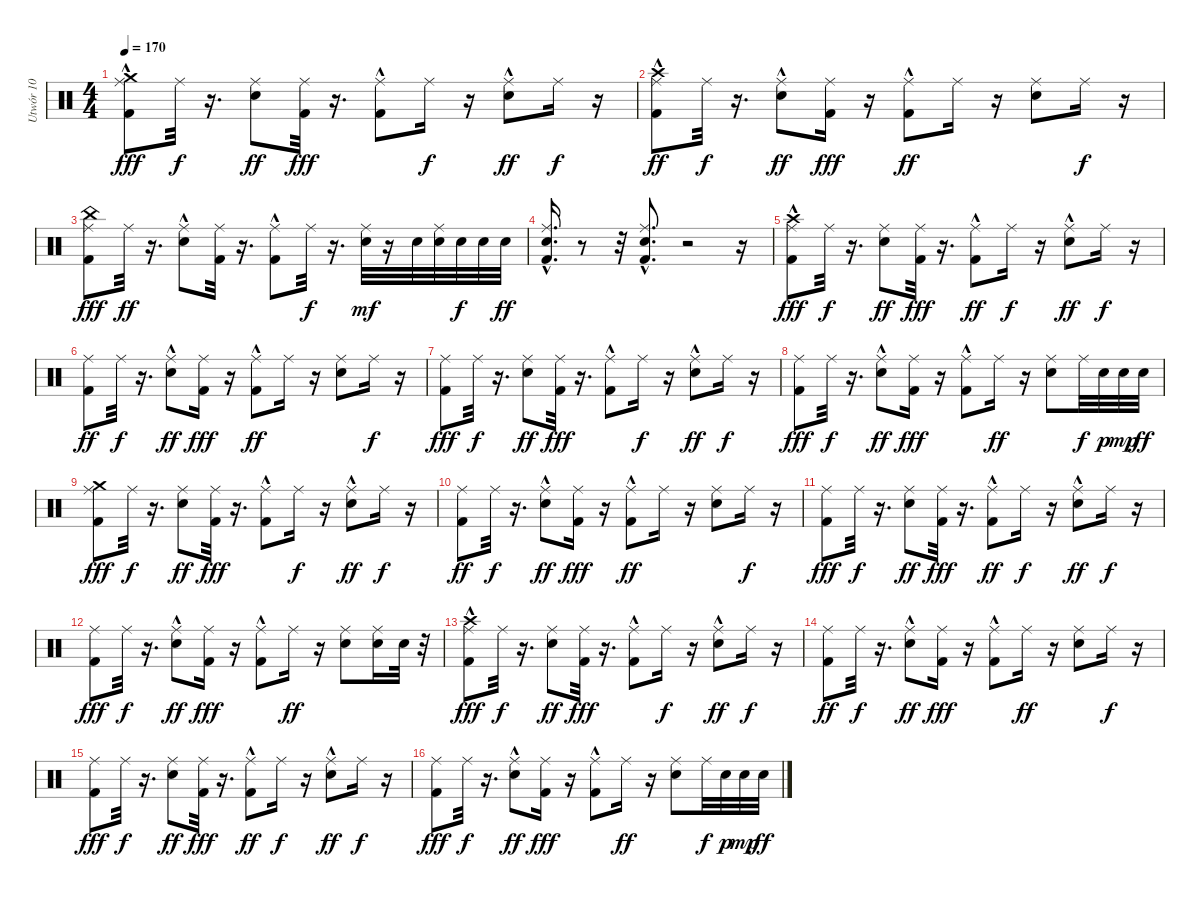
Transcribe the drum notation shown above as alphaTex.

\track ("Utwór 10" "Utwór 10") {instrument percussion}
\staff {score}
\articulation defaults
\ts (4 4)
\tempo 170
\clef neutral
\ks c
("Kick (hit) 2" "Crash medium (hit)"{hac} "Ride (middle)").8{dy fff} "Ride (middle)".32{dy f} r.16{d} ("Snare (hit) 2" "Ride (middle)").8{dy ff} ("Kick (hit) 2" "Ride (middle)").32{dy fff} r.16{d} ("Ride (middle)" "Kick (hit) 2"{hac}).8 "Ride (middle)".16{dy f} r.16 ("Snare (hit) 2"{hac} "Ride (middle)").8{dy ff} "Ride (middle)".16{dy f} r.16 |
("Kick (hit) 2" "Crash high (hit)"{hac} "Ride (middle)").8{dy ff} "Ride (middle)".32{dy f} r.16{d} ("Snare (hit) 2"{hac} "Ride (middle)").8{dy ff} ("Kick (hit) 2" "Ride (middle)").16{dy fff} r.16 ("Kick (hit) 2"{hac} "Ride (middle)").8{dy ff} "Ride (middle)".16 r.16 ("Snare (hit) 2" "Ride (middle)").8 "Ride (middle)".16{dy f} r.16 |
("Ride (middle)" "Kick (hit) 2" "China (hit)").8{dy fff} "Ride (middle)".32{dy ff} r.16{d} ("Snare (hit) 2"{hac} "Ride (middle)").8 ("Kick (hit) 2" "Ride (middle)").32 r.16{d} ("Kick (hit) 2"{hac} "Ride (middle)").8 "Ride (middle)".32{dy f} r.16{d} ("Ride (middle)" "Snare (hit) 2").32{dy mf} r.16 "Snare (hit) 2".32 ("Snare (hit) 2" "Ride (middle)").32 "Snare (hit) 2".32{dy f} "Snare (hit) 2".32 "Snare (hit) 2".32{dy ff} |
("Kick (hit) 2"{hac} "Snare (hit) 2" "Ride (middle)").16{d} r.8 r.32 ("Kick (hit) 2"{hac} "Snare (hit) 2" "Ride (middle)").8{d} r.2 r.16 |
("Kick (hit) 2" "Ride (middle)" "Crash high (hit)"{hac}).8{dy fff} "Ride (middle)".32{dy f} r.16{d} ("Snare (hit) 2" "Ride (middle)").8{dy ff} ("Kick (hit) 2" "Ride (middle)").32{dy fff} r.16{d} ("Kick (hit) 2"{hac} "Ride (middle)").8{dy ff} "Ride (middle)".16{dy f} r.16 ("Ride (middle)" "Snare (hit) 2"{hac}).8{dy ff} "Ride (middle)".16{dy f} r.16 |
("Kick (hit) 2" "Ride (middle)").8{dy ff} "Ride (middle)".32{dy f} r.16{d} ("Snare (hit) 2"{hac} "Ride (middle)").8{dy ff} ("Kick (hit) 2" "Ride (middle)").16{dy fff} r.16 ("Kick (hit) 2"{hac} "Ride (middle)").8{dy ff} "Ride (middle)".16 r.16 ("Ride (middle)" "Snare (hit) 2").8 "Ride (middle)".16{dy f} r.16 |
("Kick (hit) 2" "Ride (middle)").8{dy fff} "Ride (middle)".32{dy f} r.16{d} ("Ride (middle)" "Snare (hit) 2").8{dy ff} ("Ride (middle)" "Kick (hit) 2").32{dy fff} r.16{d} ("Ride (middle)" "Kick (hit) 2"{hac}).8 "Ride (middle)".16{dy f} r.16 ("Ride (middle)" "Snare (hit) 2"{hac}).8{dy ff} "Ride (middle)".16{dy f} r.16 |
("Ride (middle)" "Kick (hit) 2").8{dy fff} "Ride (middle)".32{dy f} r.16{d} ("Ride (middle)" "Snare (hit) 2"{hac}).8{dy ff} ("Ride (middle)" "Kick (hit) 2").16{dy fff} r.16 ("Ride (middle)" "Kick (hit) 2"{hac}).8 "Ride (middle)".16{dy ff} r.16 ("Ride (middle)" "Snare (hit) 2").8 "Ride (middle)".32{dy f} "Snare (hit) 2".32{dy p} "Snare (hit) 2".32{dy mp} "Snare (hit) 2".32{dy ff} |
("Kick (hit) 2" "Ride (middle)" "Crash medium (hit)").8{dy fff} "Ride (middle)".32{dy f} r.16{d} ("Snare (hit) 2" "Ride (middle)").8{dy ff} ("Ride (middle)" "Kick (hit) 2").32{dy fff} r.16{d} ("Ride (middle)" "Kick (hit) 2"{hac}).8 "Ride (middle)".16{dy f} r.16 ("Snare (hit) 2"{hac} "Ride (middle)").8{dy ff} "Ride (middle)".16{dy f} r.16 |
("Kick (hit) 2" "Ride (middle)").8{dy ff} "Ride (middle)".32{dy f} r.16{d} ("Snare (hit) 2"{hac} "Ride (middle)").8{dy ff} ("Kick (hit) 2" "Ride (middle)").16{dy fff} r.16 ("Kick (hit) 2"{hac} "Ride (middle)").8{dy ff} "Ride (middle)".16 r.16 ("Ride (middle)" "Snare (hit) 2").8 "Ride (middle)".16{dy f} r.16 |
("Ride (middle)" "Kick (hit) 2").8{dy fff} "Ride (middle)".32{dy f} r.16{d} ("Snare (hit) 2" "Ride (middle)").8{dy ff} ("Ride (middle)" "Kick (hit) 2").32{dy fff} r.16{d} ("Kick (hit) 2"{hac} "Ride (middle)").8{dy ff} "Ride (middle)".16{dy f} r.16 ("Ride (middle)" "Snare (hit) 2"{hac}).8{dy ff} "Ride (middle)".16{dy f} r.16 |
("Ride (middle)" "Kick (hit) 2").8{dy fff} "Ride (middle)".32{dy f} r.16{d} ("Snare (hit) 2"{hac} "Ride (middle)").8{dy ff} ("Kick (hit) 2" "Ride (middle)").16{dy fff} r.16 ("Ride (middle)" "Kick (hit) 2"{hac}).8 "Ride (middle)".16{dy ff} r.16 ("Snare (hit) 2" "Ride (middle)").8 ("Ride (middle)" "Snare (hit) 2").16 "Snare (hit) 2".32 r.32 |
("Crash high (hit)"{hac} "Kick (hit) 2" "Ride (middle)").8{dy fff} "Ride (middle)".32{dy f} r.16{d} ("Snare (hit) 2" "Ride (middle)").8{dy ff} ("Ride (middle)" "Kick (hit) 2").32{dy fff} r.16{d} ("Ride (middle)" "Kick (hit) 2"{hac}).8 "Ride (middle)".16{dy f} r.16 ("Snare (hit) 2"{hac} "Ride (middle)").8{dy ff} "Ride (middle)".16{dy f} r.16 |
("Kick (hit) 2" "Ride (middle)").8{dy ff} "Ride (middle)".32{dy f} r.16{d} ("Snare (hit) 2"{hac} "Ride (middle)").8{dy ff} ("Ride (middle)" "Kick (hit) 2").16{dy fff} r.16 ("Ride (middle)" "Kick (hit) 2"{hac}).8 "Ride (middle)".16{dy ff} r.16 ("Ride (middle)" "Snare (hit) 2").8 "Ride (middle)".16{dy f} r.16 |
("Kick (hit) 2" "Ride (middle)").8{dy fff} "Ride (middle)".32{dy f} r.16{d} ("Snare (hit) 2" "Ride (middle)").8{dy ff} ("Ride (middle)" "Kick (hit) 2").32{dy fff} r.16{d} ("Kick (hit) 2"{hac} "Ride (middle)").8{dy ff} "Ride (middle)".16{dy f} r.16 ("Snare (hit) 2"{hac} "Ride (middle)").8{dy ff} "Ride (middle)".16{dy f} r.16 |
("Ride (middle)" "Kick (hit) 2").8{dy fff} "Ride (middle)".32{dy f} r.16{d} ("Ride (middle)" "Snare (hit) 2"{hac}).8{dy ff} ("Ride (middle)" "Kick (hit) 2").16{dy fff} r.16 ("Ride (middle)" "Kick (hit) 2"{hac}).8 "Ride (middle)".16{dy ff} r.16 ("Ride (middle)" "Snare (hit) 2").8 "Ride (middle)".32{dy f} "Snare (hit) 2".32{dy p} "Snare (hit) 2".32{dy mp} "Snare (hit) 2".32{dy ff}
